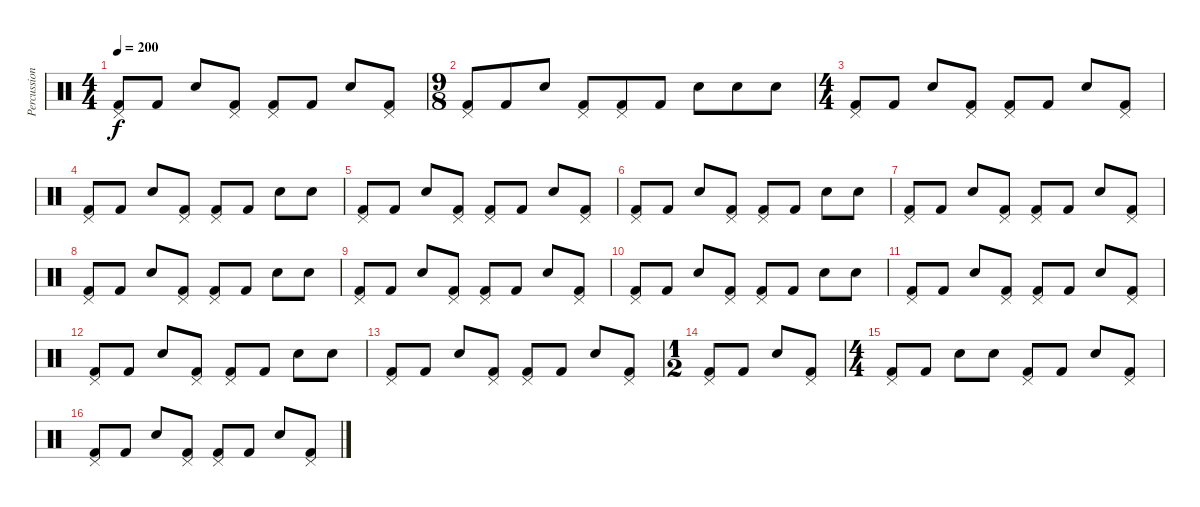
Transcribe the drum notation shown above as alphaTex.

\track ("Percussion" "Percussion") {instrument percussion}
\staff {score}
\articulation defaults
\ts (4 4)
\tempo 200
\clef neutral
\ks c
("Pedal Hi-Hat (hit)" "Kick (hit) 2").8{dy f} "Kick (hit) 2".8 "Snare (hit) 2".8 ("Pedal Hi-Hat (hit)" "Kick (hit) 2").8 ("Pedal Hi-Hat (hit)" "Kick (hit) 2").8 "Kick (hit) 2".8 "Snare (hit) 2".8 ("Pedal Hi-Hat (hit)" "Kick (hit) 2").8 |
\ts (9 8)
("Pedal Hi-Hat (hit)" "Kick (hit) 2").8 "Kick (hit) 2".8 "Snare (hit) 2".8 ("Pedal Hi-Hat (hit)" "Kick (hit) 2").8 ("Pedal Hi-Hat (hit)" "Kick (hit) 2").8 "Kick (hit) 2".8 "Snare (hit) 2".8 "Snare (hit) 2".8 "Snare (hit) 2".8 |
\ts (4 4)
("Pedal Hi-Hat (hit)" "Kick (hit) 2").8 "Kick (hit) 2".8 "Snare (hit) 2".8 ("Pedal Hi-Hat (hit)" "Kick (hit) 2").8 ("Pedal Hi-Hat (hit)" "Kick (hit) 2").8 "Kick (hit) 2".8 "Snare (hit) 2".8 ("Pedal Hi-Hat (hit)" "Kick (hit) 2").8 |
("Pedal Hi-Hat (hit)" "Kick (hit) 2").8 "Kick (hit) 2".8 "Snare (hit) 2".8 ("Pedal Hi-Hat (hit)" "Kick (hit) 2").8 ("Pedal Hi-Hat (hit)" "Kick (hit) 2").8 "Kick (hit) 2".8 "Snare (hit) 2".8 "Snare (hit) 2".8 |
("Pedal Hi-Hat (hit)" "Kick (hit) 2").8 "Kick (hit) 2".8 "Snare (hit) 2".8 ("Pedal Hi-Hat (hit)" "Kick (hit) 2").8 ("Pedal Hi-Hat (hit)" "Kick (hit) 2").8 "Kick (hit) 2".8 "Snare (hit) 2".8 ("Pedal Hi-Hat (hit)" "Kick (hit) 2").8 |
("Pedal Hi-Hat (hit)" "Kick (hit) 2").8 "Kick (hit) 2".8 "Snare (hit) 2".8 ("Pedal Hi-Hat (hit)" "Kick (hit) 2").8 ("Pedal Hi-Hat (hit)" "Kick (hit) 2").8 "Kick (hit) 2".8 "Snare (hit) 2".8 "Snare (hit) 2".8 |
("Pedal Hi-Hat (hit)" "Kick (hit) 2").8 "Kick (hit) 2".8 "Snare (hit) 2".8 ("Pedal Hi-Hat (hit)" "Kick (hit) 2").8 ("Pedal Hi-Hat (hit)" "Kick (hit) 2").8 "Kick (hit) 2".8 "Snare (hit) 2".8 ("Pedal Hi-Hat (hit)" "Kick (hit) 2").8 |
("Pedal Hi-Hat (hit)" "Kick (hit) 2").8 "Kick (hit) 2".8 "Snare (hit) 2".8 ("Pedal Hi-Hat (hit)" "Kick (hit) 2").8 ("Pedal Hi-Hat (hit)" "Kick (hit) 2").8 "Kick (hit) 2".8 "Snare (hit) 2".8 "Snare (hit) 2".8 |
("Pedal Hi-Hat (hit)" "Kick (hit) 2").8 "Kick (hit) 2".8 "Snare (hit) 2".8 ("Pedal Hi-Hat (hit)" "Kick (hit) 2").8 ("Pedal Hi-Hat (hit)" "Kick (hit) 2").8 "Kick (hit) 2".8 "Snare (hit) 2".8 ("Pedal Hi-Hat (hit)" "Kick (hit) 2").8 |
("Pedal Hi-Hat (hit)" "Kick (hit) 2").8 "Kick (hit) 2".8 "Snare (hit) 2".8 ("Pedal Hi-Hat (hit)" "Kick (hit) 2").8 ("Pedal Hi-Hat (hit)" "Kick (hit) 2").8 "Kick (hit) 2".8 "Snare (hit) 2".8 "Snare (hit) 2".8 |
("Pedal Hi-Hat (hit)" "Kick (hit) 2").8 "Kick (hit) 2".8 "Snare (hit) 2".8 ("Pedal Hi-Hat (hit)" "Kick (hit) 2").8 ("Pedal Hi-Hat (hit)" "Kick (hit) 2").8 "Kick (hit) 2".8 "Snare (hit) 2".8 ("Pedal Hi-Hat (hit)" "Kick (hit) 2").8 |
("Pedal Hi-Hat (hit)" "Kick (hit) 2").8 "Kick (hit) 2".8 "Snare (hit) 2".8 ("Pedal Hi-Hat (hit)" "Kick (hit) 2").8 ("Pedal Hi-Hat (hit)" "Kick (hit) 2").8 "Kick (hit) 2".8 "Snare (hit) 2".8 "Snare (hit) 2".8 |
("Pedal Hi-Hat (hit)" "Kick (hit) 2").8 "Kick (hit) 2".8 "Snare (hit) 2".8 ("Pedal Hi-Hat (hit)" "Kick (hit) 2").8 ("Pedal Hi-Hat (hit)" "Kick (hit) 2").8 "Kick (hit) 2".8 "Snare (hit) 2".8 ("Pedal Hi-Hat (hit)" "Kick (hit) 2").8 |
\ts (1 2)
("Pedal Hi-Hat (hit)" "Kick (hit) 2").8 "Kick (hit) 2".8 "Snare (hit) 2".8 ("Pedal Hi-Hat (hit)" "Kick (hit) 2").8 |
\ts (4 4)
("Pedal Hi-Hat (hit)" "Kick (hit) 2").8 "Kick (hit) 2".8 "Snare (hit) 2".8 "Snare (hit) 2".8 ("Pedal Hi-Hat (hit)" "Kick (hit) 2").8 "Kick (hit) 2".8 "Snare (hit) 2".8 ("Pedal Hi-Hat (hit)" "Kick (hit) 2").8 |
("Pedal Hi-Hat (hit)" "Kick (hit) 2").8 "Kick (hit) 2".8 "Snare (hit) 2".8 ("Pedal Hi-Hat (hit)" "Kick (hit) 2").8 ("Pedal Hi-Hat (hit)" "Kick (hit) 2").8 "Kick (hit) 2".8 "Snare (hit) 2".8 ("Pedal Hi-Hat (hit)" "Kick (hit) 2").8
